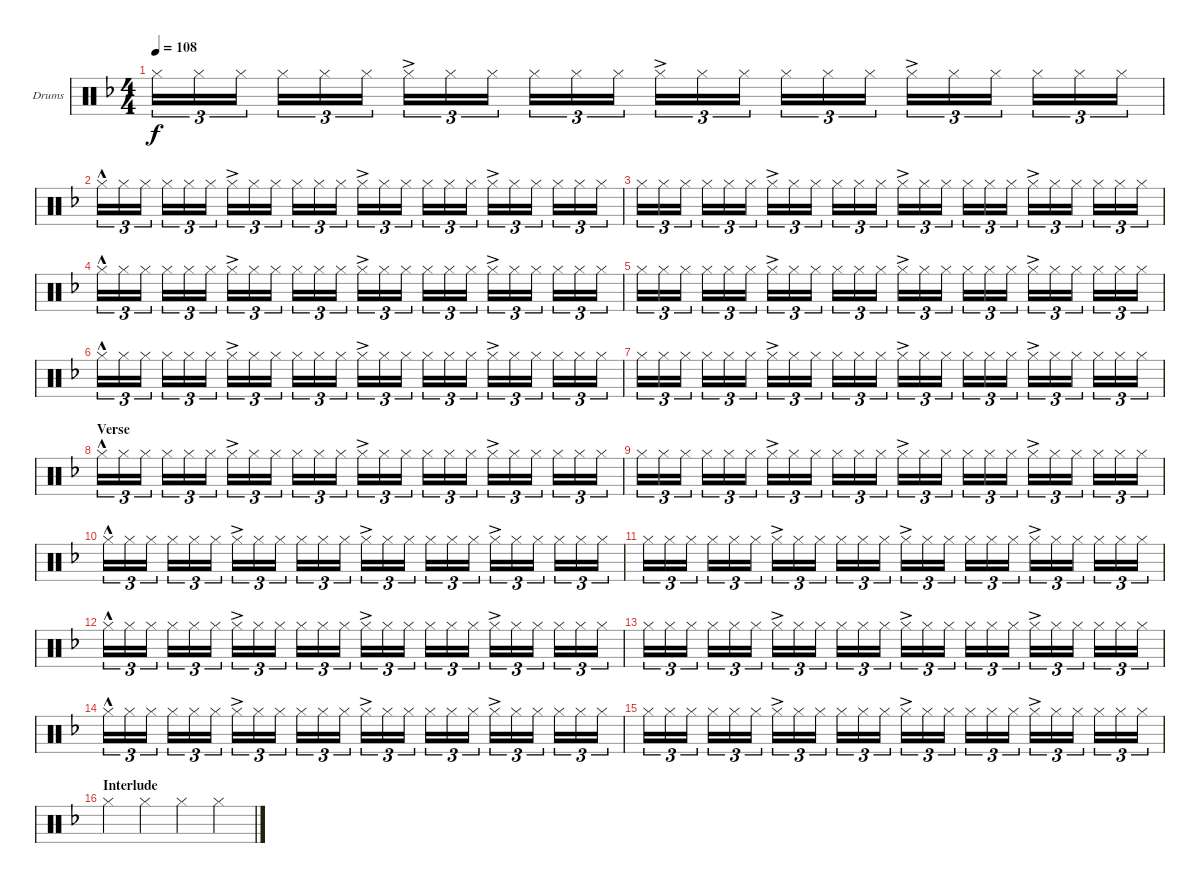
\defaultSystemsLayout 4
\bracketExtendMode groupsimilarinstruments
\firstSystemTrackNameOrientation horizontal
\otherSystemsTrackNameOrientation horizontal
\track ("Drumkit" "Drums") {instrument percussion}
\staff {score}
\articulation defaults
\ts (4 4)
\tempo 108
\clef neutral
\ks dminor "Hi-Hat (closed)".16{tu (3 2) dy f} "Hi-Hat (closed)".16{tu (3 2)} "Hi-Hat (closed)".16{tu (3 2)} "Hi-Hat (closed)".16{tu (3 2)} "Hi-Hat (closed)".16{tu (3 2)} "Hi-Hat (closed)".16{tu (3 2)} "Hi-Hat (closed)"{ac}.16{tu (3 2)} "Hi-Hat (closed)".16{tu (3 2)} "Hi-Hat (closed)".16{tu (3 2)} "Hi-Hat (closed)".16{tu (3 2)} "Hi-Hat (closed)".16{tu (3 2)} "Hi-Hat (closed)".16{tu (3 2)} "Hi-Hat (closed)"{ac}.16{tu (3 2)} "Hi-Hat (closed)".16{tu (3 2)} "Hi-Hat (closed)".16{tu (3 2)} "Hi-Hat (closed)".16{tu (3 2)} "Hi-Hat (closed)".16{tu (3 2)} "Hi-Hat (closed)".16{tu (3 2)} "Hi-Hat (closed)"{ac}.16{tu (3 2)} "Hi-Hat (closed)".16{tu (3 2)} "Hi-Hat (closed)".16{tu (3 2)} "Hi-Hat (closed)".16{tu (3 2)} "Hi-Hat (closed)".16{tu (3 2)} "Hi-Hat (closed)".16{tu (3 2)}
|
"Hi-Hat (closed)"{hac}.16{tu (3 2)} "Hi-Hat (closed)".16{tu (3 2)} "Hi-Hat (closed)".16{tu (3 2)} "Hi-Hat (closed)".16{tu (3 2)} "Hi-Hat (closed)".16{tu (3 2)} "Hi-Hat (closed)".16{tu (3 2)} "Hi-Hat (closed)"{ac}.16{tu (3 2)} "Hi-Hat (closed)".16{tu (3 2)} "Hi-Hat (closed)".16{tu (3 2)} "Hi-Hat (closed)".16{tu (3 2)} "Hi-Hat (closed)".16{tu (3 2)} "Hi-Hat (closed)".16{tu (3 2)} "Hi-Hat (closed)"{ac}.16{tu (3 2)} "Hi-Hat (closed)".16{tu (3 2)} "Hi-Hat (closed)".16{tu (3 2)} "Hi-Hat (closed)".16{tu (3 2)} "Hi-Hat (closed)".16{tu (3 2)} "Hi-Hat (closed)".16{tu (3 2)} "Hi-Hat (closed)"{ac}.16{tu (3 2)} "Hi-Hat (closed)".16{tu (3 2)} "Hi-Hat (closed)".16{tu (3 2)} "Hi-Hat (closed)".16{tu (3 2)} "Hi-Hat (closed)".16{tu (3 2)} "Hi-Hat (closed)".16{tu (3 2)} |
"Hi-Hat (closed)".16{tu (3 2)} "Hi-Hat (closed)".16{tu (3 2)} "Hi-Hat (closed)".16{tu (3 2)} "Hi-Hat (closed)".16{tu (3 2)} "Hi-Hat (closed)".16{tu (3 2)} "Hi-Hat (closed)".16{tu (3 2)} "Hi-Hat (closed)"{ac}.16{tu (3 2)} "Hi-Hat (closed)".16{tu (3 2)} "Hi-Hat (closed)".16{tu (3 2)} "Hi-Hat (closed)".16{tu (3 2)} "Hi-Hat (closed)".16{tu (3 2)} "Hi-Hat (closed)".16{tu (3 2)} "Hi-Hat (closed)"{ac}.16{tu (3 2)} "Hi-Hat (closed)".16{tu (3 2)} "Hi-Hat (closed)".16{tu (3 2)} "Hi-Hat (closed)".16{tu (3 2)} "Hi-Hat (closed)".16{tu (3 2)} "Hi-Hat (closed)".16{tu (3 2)} "Hi-Hat (closed)"{ac}.16{tu (3 2)} "Hi-Hat (closed)".16{tu (3 2)} "Hi-Hat (closed)".16{tu (3 2)} "Hi-Hat (closed)".16{tu (3 2)} "Hi-Hat (closed)".16{tu (3 2)} "Hi-Hat (closed)".16{tu (3 2)} |
"Hi-Hat (closed)"{hac}.16{tu (3 2)} "Hi-Hat (closed)".16{tu (3 2)} "Hi-Hat (closed)".16{tu (3 2)} "Hi-Hat (closed)".16{tu (3 2)} "Hi-Hat (closed)".16{tu (3 2)} "Hi-Hat (closed)".16{tu (3 2)} "Hi-Hat (closed)"{ac}.16{tu (3 2)} "Hi-Hat (closed)".16{tu (3 2)} "Hi-Hat (closed)".16{tu (3 2)} "Hi-Hat (closed)".16{tu (3 2)} "Hi-Hat (closed)".16{tu (3 2)} "Hi-Hat (closed)".16{tu (3 2)} "Hi-Hat (closed)"{ac}.16{tu (3 2)} "Hi-Hat (closed)".16{tu (3 2)} "Hi-Hat (closed)".16{tu (3 2)} "Hi-Hat (closed)".16{tu (3 2)} "Hi-Hat (closed)".16{tu (3 2)} "Hi-Hat (closed)".16{tu (3 2)} "Hi-Hat (closed)"{ac}.16{tu (3 2)} "Hi-Hat (closed)".16{tu (3 2)} "Hi-Hat (closed)".16{tu (3 2)} "Hi-Hat (closed)".16{tu (3 2)} "Hi-Hat (closed)".16{tu (3 2)} "Hi-Hat (closed)".16{tu (3 2)} |
"Hi-Hat (closed)".16{tu (3 2)} "Hi-Hat (closed)".16{tu (3 2)} "Hi-Hat (closed)".16{tu (3 2)} "Hi-Hat (closed)".16{tu (3 2)} "Hi-Hat (closed)".16{tu (3 2)} "Hi-Hat (closed)".16{tu (3 2)} "Hi-Hat (closed)"{ac}.16{tu (3 2)} "Hi-Hat (closed)".16{tu (3 2)} "Hi-Hat (closed)".16{tu (3 2)} "Hi-Hat (closed)".16{tu (3 2)} "Hi-Hat (closed)".16{tu (3 2)} "Hi-Hat (closed)".16{tu (3 2)} "Hi-Hat (closed)"{ac}.16{tu (3 2)} "Hi-Hat (closed)".16{tu (3 2)} "Hi-Hat (closed)".16{tu (3 2)} "Hi-Hat (closed)".16{tu (3 2)} "Hi-Hat (closed)".16{tu (3 2)} "Hi-Hat (closed)".16{tu (3 2)} "Hi-Hat (closed)"{ac}.16{tu (3 2)} "Hi-Hat (closed)".16{tu (3 2)} "Hi-Hat (closed)".16{tu (3 2)} "Hi-Hat (closed)".16{tu (3 2)} "Hi-Hat (closed)".16{tu (3 2)} "Hi-Hat (closed)".16{tu (3 2)} |
"Hi-Hat (closed)"{hac}.16{tu (3 2)} "Hi-Hat (closed)".16{tu (3 2)} "Hi-Hat (closed)".16{tu (3 2)} "Hi-Hat (closed)".16{tu (3 2)} "Hi-Hat (closed)".16{tu (3 2)} "Hi-Hat (closed)".16{tu (3 2)} "Hi-Hat (closed)"{ac}.16{tu (3 2)} "Hi-Hat (closed)".16{tu (3 2)} "Hi-Hat (closed)".16{tu (3 2)} "Hi-Hat (closed)".16{tu (3 2)} "Hi-Hat (closed)".16{tu (3 2)} "Hi-Hat (closed)".16{tu (3 2)} "Hi-Hat (closed)"{ac}.16{tu (3 2)} "Hi-Hat (closed)".16{tu (3 2)} "Hi-Hat (closed)".16{tu (3 2)} "Hi-Hat (closed)".16{tu (3 2)} "Hi-Hat (closed)".16{tu (3 2)} "Hi-Hat (closed)".16{tu (3 2)} "Hi-Hat (closed)"{ac}.16{tu (3 2)} "Hi-Hat (closed)".16{tu (3 2)} "Hi-Hat (closed)".16{tu (3 2)} "Hi-Hat (closed)".16{tu (3 2)} "Hi-Hat (closed)".16{tu (3 2)} "Hi-Hat (closed)".16{tu (3 2)} |
"Hi-Hat (closed)".16{tu (3 2)} "Hi-Hat (closed)".16{tu (3 2)} "Hi-Hat (closed)".16{tu (3 2)} "Hi-Hat (closed)".16{tu (3 2)} "Hi-Hat (closed)".16{tu (3 2)} "Hi-Hat (closed)".16{tu (3 2)} "Hi-Hat (closed)"{ac}.16{tu (3 2)} "Hi-Hat (closed)".16{tu (3 2)} "Hi-Hat (closed)".16{tu (3 2)} "Hi-Hat (closed)".16{tu (3 2)} "Hi-Hat (closed)".16{tu (3 2)} "Hi-Hat (closed)".16{tu (3 2)} "Hi-Hat (closed)"{ac}.16{tu (3 2)} "Hi-Hat (closed)".16{tu (3 2)} "Hi-Hat (closed)".16{tu (3 2)} "Hi-Hat (closed)".16{tu (3 2)} "Hi-Hat (closed)".16{tu (3 2)} "Hi-Hat (closed)".16{tu (3 2)} "Hi-Hat (closed)"{ac}.16{tu (3 2)} "Hi-Hat (closed)".16{tu (3 2)} "Hi-Hat (closed)".16{tu (3 2)} "Hi-Hat (closed)".16{tu (3 2)} "Hi-Hat (closed)".16{tu (3 2)} "Hi-Hat (closed)".16{tu (3 2)} |
\section ("" "Verse")
"Hi-Hat (closed)"{hac}.16{tu (3 2)} "Hi-Hat (closed)".16{tu (3 2)} "Hi-Hat (closed)".16{tu (3 2)} "Hi-Hat (closed)".16{tu (3 2)} "Hi-Hat (closed)".16{tu (3 2)} "Hi-Hat (closed)".16{tu (3 2)} "Hi-Hat (closed)"{ac}.16{tu (3 2)} "Hi-Hat (closed)".16{tu (3 2)} "Hi-Hat (closed)".16{tu (3 2)} "Hi-Hat (closed)".16{tu (3 2)} "Hi-Hat (closed)".16{tu (3 2)} "Hi-Hat (closed)".16{tu (3 2)} "Hi-Hat (closed)"{ac}.16{tu (3 2)} "Hi-Hat (closed)".16{tu (3 2)} "Hi-Hat (closed)".16{tu (3 2)} "Hi-Hat (closed)".16{tu (3 2)} "Hi-Hat (closed)".16{tu (3 2)} "Hi-Hat (closed)".16{tu (3 2)} "Hi-Hat (closed)"{ac}.16{tu (3 2)} "Hi-Hat (closed)".16{tu (3 2)} "Hi-Hat (closed)".16{tu (3 2)} "Hi-Hat (closed)".16{tu (3 2)} "Hi-Hat (closed)".16{tu (3 2)} "Hi-Hat (closed)".16{tu (3 2)} |
"Hi-Hat (closed)".16{tu (3 2)} "Hi-Hat (closed)".16{tu (3 2)} "Hi-Hat (closed)".16{tu (3 2)} "Hi-Hat (closed)".16{tu (3 2)} "Hi-Hat (closed)".16{tu (3 2)} "Hi-Hat (closed)".16{tu (3 2)} "Hi-Hat (closed)"{ac}.16{tu (3 2)} "Hi-Hat (closed)".16{tu (3 2)} "Hi-Hat (closed)".16{tu (3 2)} "Hi-Hat (closed)".16{tu (3 2)} "Hi-Hat (closed)".16{tu (3 2)} "Hi-Hat (closed)".16{tu (3 2)} "Hi-Hat (closed)"{ac}.16{tu (3 2)} "Hi-Hat (closed)".16{tu (3 2)} "Hi-Hat (closed)".16{tu (3 2)} "Hi-Hat (closed)".16{tu (3 2)} "Hi-Hat (closed)".16{tu (3 2)} "Hi-Hat (closed)".16{tu (3 2)} "Hi-Hat (closed)"{ac}.16{tu (3 2)} "Hi-Hat (closed)".16{tu (3 2)} "Hi-Hat (closed)".16{tu (3 2)} "Hi-Hat (closed)".16{tu (3 2)} "Hi-Hat (closed)".16{tu (3 2)} "Hi-Hat (closed)".16{tu (3 2)} |
"Hi-Hat (closed)"{hac}.16{tu (3 2)} "Hi-Hat (closed)".16{tu (3 2)} "Hi-Hat (closed)".16{tu (3 2)} "Hi-Hat (closed)".16{tu (3 2)} "Hi-Hat (closed)".16{tu (3 2)} "Hi-Hat (closed)".16{tu (3 2)} "Hi-Hat (closed)"{ac}.16{tu (3 2)} "Hi-Hat (closed)".16{tu (3 2)} "Hi-Hat (closed)".16{tu (3 2)} "Hi-Hat (closed)".16{tu (3 2)} "Hi-Hat (closed)".16{tu (3 2)} "Hi-Hat (closed)".16{tu (3 2)} "Hi-Hat (closed)"{ac}.16{tu (3 2)} "Hi-Hat (closed)".16{tu (3 2)} "Hi-Hat (closed)".16{tu (3 2)} "Hi-Hat (closed)".16{tu (3 2)} "Hi-Hat (closed)".16{tu (3 2)} "Hi-Hat (closed)".16{tu (3 2)} "Hi-Hat (closed)"{ac}.16{tu (3 2)} "Hi-Hat (closed)".16{tu (3 2)} "Hi-Hat (closed)".16{tu (3 2)} "Hi-Hat (closed)".16{tu (3 2)} "Hi-Hat (closed)".16{tu (3 2)} "Hi-Hat (closed)".16{tu (3 2)} |
"Hi-Hat (closed)".16{tu (3 2)} "Hi-Hat (closed)".16{tu (3 2)} "Hi-Hat (closed)".16{tu (3 2)} "Hi-Hat (closed)".16{tu (3 2)} "Hi-Hat (closed)".16{tu (3 2)} "Hi-Hat (closed)".16{tu (3 2)} "Hi-Hat (closed)"{ac}.16{tu (3 2)} "Hi-Hat (closed)".16{tu (3 2)} "Hi-Hat (closed)".16{tu (3 2)} "Hi-Hat (closed)".16{tu (3 2)} "Hi-Hat (closed)".16{tu (3 2)} "Hi-Hat (closed)".16{tu (3 2)} "Hi-Hat (closed)"{ac}.16{tu (3 2)} "Hi-Hat (closed)".16{tu (3 2)} "Hi-Hat (closed)".16{tu (3 2)} "Hi-Hat (closed)".16{tu (3 2)} "Hi-Hat (closed)".16{tu (3 2)} "Hi-Hat (closed)".16{tu (3 2)} "Hi-Hat (closed)"{ac}.16{tu (3 2)} "Hi-Hat (closed)".16{tu (3 2)} "Hi-Hat (closed)".16{tu (3 2)} "Hi-Hat (closed)".16{tu (3 2)} "Hi-Hat (closed)".16{tu (3 2)} "Hi-Hat (closed)".16{tu (3 2)} |
"Hi-Hat (closed)"{hac}.16{tu (3 2)} "Hi-Hat (closed)".16{tu (3 2)} "Hi-Hat (closed)".16{tu (3 2)} "Hi-Hat (closed)".16{tu (3 2)} "Hi-Hat (closed)".16{tu (3 2)} "Hi-Hat (closed)".16{tu (3 2)} "Hi-Hat (closed)"{ac}.16{tu (3 2)} "Hi-Hat (closed)".16{tu (3 2)} "Hi-Hat (closed)".16{tu (3 2)} "Hi-Hat (closed)".16{tu (3 2)} "Hi-Hat (closed)".16{tu (3 2)} "Hi-Hat (closed)".16{tu (3 2)} "Hi-Hat (closed)"{ac}.16{tu (3 2)} "Hi-Hat (closed)".16{tu (3 2)} "Hi-Hat (closed)".16{tu (3 2)} "Hi-Hat (closed)".16{tu (3 2)} "Hi-Hat (closed)".16{tu (3 2)} "Hi-Hat (closed)".16{tu (3 2)} "Hi-Hat (closed)"{ac}.16{tu (3 2)} "Hi-Hat (closed)".16{tu (3 2)} "Hi-Hat (closed)".16{tu (3 2)} "Hi-Hat (closed)".16{tu (3 2)} "Hi-Hat (closed)".16{tu (3 2)} "Hi-Hat (closed)".16{tu (3 2)} |
"Hi-Hat (closed)".16{tu (3 2)} "Hi-Hat (closed)".16{tu (3 2)} "Hi-Hat (closed)".16{tu (3 2)} "Hi-Hat (closed)".16{tu (3 2)} "Hi-Hat (closed)".16{tu (3 2)} "Hi-Hat (closed)".16{tu (3 2)} "Hi-Hat (closed)"{ac}.16{tu (3 2)} "Hi-Hat (closed)".16{tu (3 2)} "Hi-Hat (closed)".16{tu (3 2)} "Hi-Hat (closed)".16{tu (3 2)} "Hi-Hat (closed)".16{tu (3 2)} "Hi-Hat (closed)".16{tu (3 2)} "Hi-Hat (closed)"{ac}.16{tu (3 2)} "Hi-Hat (closed)".16{tu (3 2)} "Hi-Hat (closed)".16{tu (3 2)} "Hi-Hat (closed)".16{tu (3 2)} "Hi-Hat (closed)".16{tu (3 2)} "Hi-Hat (closed)".16{tu (3 2)} "Hi-Hat (closed)"{ac}.16{tu (3 2)} "Hi-Hat (closed)".16{tu (3 2)} "Hi-Hat (closed)".16{tu (3 2)} "Hi-Hat (closed)".16{tu (3 2)} "Hi-Hat (closed)".16{tu (3 2)} "Hi-Hat (closed)".16{tu (3 2)} |
"Hi-Hat (closed)"{hac}.16{tu (3 2)} "Hi-Hat (closed)".16{tu (3 2)} "Hi-Hat (closed)".16{tu (3 2)} "Hi-Hat (closed)".16{tu (3 2)} "Hi-Hat (closed)".16{tu (3 2)} "Hi-Hat (closed)".16{tu (3 2)} "Hi-Hat (closed)"{ac}.16{tu (3 2)} "Hi-Hat (closed)".16{tu (3 2)} "Hi-Hat (closed)".16{tu (3 2)} "Hi-Hat (closed)".16{tu (3 2)} "Hi-Hat (closed)".16{tu (3 2)} "Hi-Hat (closed)".16{tu (3 2)} "Hi-Hat (closed)"{ac}.16{tu (3 2)} "Hi-Hat (closed)".16{tu (3 2)} "Hi-Hat (closed)".16{tu (3 2)} "Hi-Hat (closed)".16{tu (3 2)} "Hi-Hat (closed)".16{tu (3 2)} "Hi-Hat (closed)".16{tu (3 2)} "Hi-Hat (closed)"{ac}.16{tu (3 2)} "Hi-Hat (closed)".16{tu (3 2)} "Hi-Hat (closed)".16{tu (3 2)} "Hi-Hat (closed)".16{tu (3 2)} "Hi-Hat (closed)".16{tu (3 2)} "Hi-Hat (closed)".16{tu (3 2)} |
"Hi-Hat (closed)".16{tu (3 2)} "Hi-Hat (closed)".16{tu (3 2)} "Hi-Hat (closed)".16{tu (3 2)} "Hi-Hat (closed)".16{tu (3 2)} "Hi-Hat (closed)".16{tu (3 2)} "Hi-Hat (closed)".16{tu (3 2)} "Hi-Hat (closed)"{ac}.16{tu (3 2)} "Hi-Hat (closed)".16{tu (3 2)} "Hi-Hat (closed)".16{tu (3 2)} "Hi-Hat (closed)".16{tu (3 2)} "Hi-Hat (closed)".16{tu (3 2)} "Hi-Hat (closed)".16{tu (3 2)} "Hi-Hat (closed)"{ac}.16{tu (3 2)} "Hi-Hat (closed)".16{tu (3 2)} "Hi-Hat (closed)".16{tu (3 2)} "Hi-Hat (closed)".16{tu (3 2)} "Hi-Hat (closed)".16{tu (3 2)} "Hi-Hat (closed)".16{tu (3 2)} "Hi-Hat (closed)"{ac}.16{tu (3 2)} "Hi-Hat (closed)".16{tu (3 2)} "Hi-Hat (closed)".16{tu (3 2)} "Hi-Hat (closed)".16{tu (3 2)} "Hi-Hat (closed)".16{tu (3 2)} "Hi-Hat (closed)".16{tu (3 2)} |
\section ("" "Interlude")
"Hi-Hat (closed)".4 "Hi-Hat (closed)".4 "Hi-Hat (closed)".4 "Hi-Hat (closed)".4
